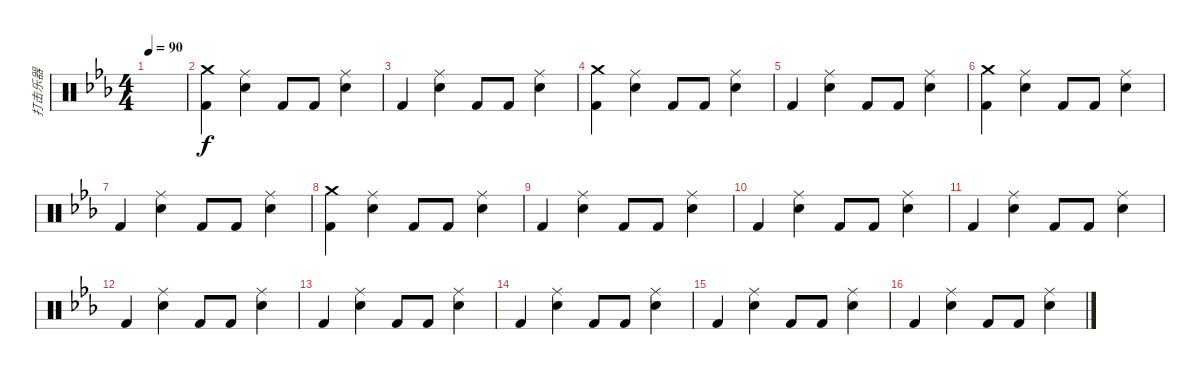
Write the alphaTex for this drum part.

\track ("打击乐器" "打击乐器") {instrument percussion}
\staff {score}
\articulation defaults
\ts (4 4)
\tempo 90
\clef neutral
\ks eb
|
("Crash medium (hit)" "Kick (hit) 2").4 ("Ride (middle)" "Snare (hit) 2").4 "Kick (hit) 2".8 "Kick (hit) 2".8 ("Ride (middle)" "Snare (hit) 2").4 |
"Kick (hit) 2".4 ("Ride (middle)" "Snare (hit) 2").4 "Kick (hit) 2".8 "Kick (hit) 2".8 ("Ride (middle)" "Snare (hit) 2").4 |
("Crash medium (hit)" "Kick (hit) 2").4 ("Ride (middle)" "Snare (hit) 2").4 "Kick (hit) 2".8 "Kick (hit) 2".8 ("Ride (middle)" "Snare (hit) 2").4 |
"Kick (hit) 2".4 ("Ride (middle)" "Snare (hit) 2").4 "Kick (hit) 2".8 "Kick (hit) 2".8 ("Ride (middle)" "Snare (hit) 2").4 |
("Crash medium (hit)" "Kick (hit) 2").4 ("Ride (middle)" "Snare (hit) 2").4 "Kick (hit) 2".8 "Kick (hit) 2".8 ("Ride (middle)" "Snare (hit) 2").4 |
"Kick (hit) 2".4 ("Ride (middle)" "Snare (hit) 2").4 "Kick (hit) 2".8 "Kick (hit) 2".8 ("Ride (middle)" "Snare (hit) 2").4 |
("Crash medium (hit)" "Kick (hit) 2").4 ("Ride (middle)" "Snare (hit) 2").4 "Kick (hit) 2".8 "Kick (hit) 2".8 ("Ride (middle)" "Snare (hit) 2").4 |
"Kick (hit) 2".4 ("Ride (middle)" "Snare (hit) 2").4 "Kick (hit) 2".8 "Kick (hit) 2".8 ("Ride (middle)" "Snare (hit) 2").4 |
"Kick (hit) 2".4 ("Ride (middle)" "Snare (hit) 2").4 "Kick (hit) 2".8 "Kick (hit) 2".8 ("Ride (middle)" "Snare (hit) 2").4 |
"Kick (hit) 2".4 ("Ride (middle)" "Snare (hit) 2").4 "Kick (hit) 2".8 "Kick (hit) 2".8 ("Ride (middle)" "Snare (hit) 2").4 |
"Kick (hit) 2".4 ("Ride (middle)" "Snare (hit) 2").4 "Kick (hit) 2".8 "Kick (hit) 2".8 ("Ride (middle)" "Snare (hit) 2").4 |
"Kick (hit) 2".4 ("Ride (middle)" "Snare (hit) 2").4 "Kick (hit) 2".8 "Kick (hit) 2".8 ("Ride (middle)" "Snare (hit) 2").4 |
"Kick (hit) 2".4 ("Ride (middle)" "Snare (hit) 2").4 "Kick (hit) 2".8 "Kick (hit) 2".8 ("Ride (middle)" "Snare (hit) 2").4 |
"Kick (hit) 2".4 ("Ride (middle)" "Snare (hit) 2").4 "Kick (hit) 2".8 "Kick (hit) 2".8 ("Ride (middle)" "Snare (hit) 2").4 |
"Kick (hit) 2".4 ("Ride (middle)" "Snare (hit) 2").4 "Kick (hit) 2".8 "Kick (hit) 2".8 ("Ride (middle)" "Snare (hit) 2").4
